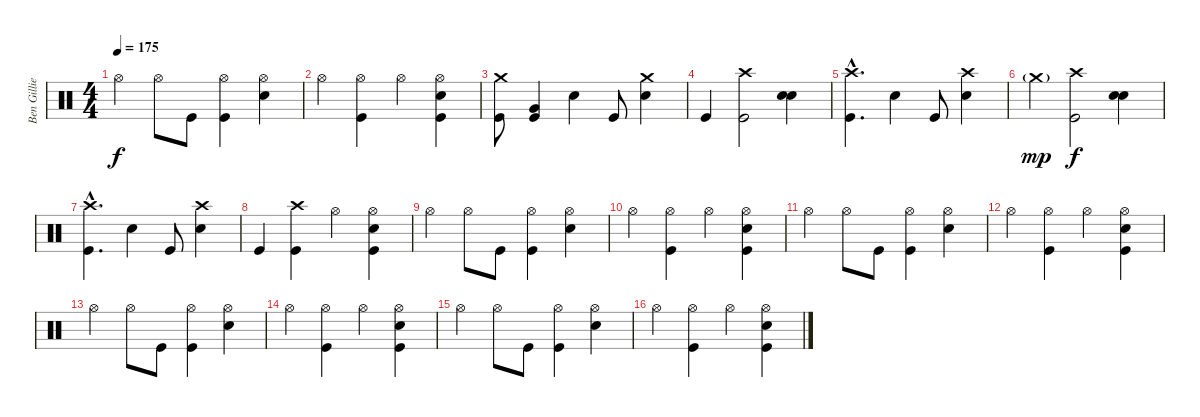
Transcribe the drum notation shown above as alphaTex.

\track ("Ben Gillies" "Ben Gillie") {instrument percussion}
\staff {score}
\articulation defaults
\ts (4 4)
\tempo 175
\clef neutral
\ks c "Hi-Hat (open)".4{dy f} "Hi-Hat (open)".8 "Kick (hit)".8
("Kick (hit)" "Hi-Hat (open)").4 ("Snare (hit) 2" "Hi-Hat (open)").4 |
"Hi-Hat (open)".4 ("Kick (hit)" "Hi-Hat (open)").4 "Hi-Hat (open)".4 ("Kick (hit)" "Snare (hit) 2" "Hi-Hat (open)").4 |
("Kick (hit)" "Crash medium (hit)").8 ("Kick (hit)" "Very Low Tom (hit)").4 "Snare (hit) 2".4 "Kick (hit)".8 ("Snare (hit) 2" "Crash medium (hit)").4 |
"Kick (hit)".4 ("Kick (hit)" "Crash high (hit)").2 ("Snare (hit) 2" "Snare (hit) 2").4{bu 60} |
("Kick (hit)"{hac} "Crash high (hit)"{hac}).4{d} "Snare (hit) 2".4 "Kick (hit)".8 ("Snare (hit) 2" "Crash high (hit)").4 |
"Crash medium (hit)"{g}.4{dy mp} ("Kick (hit)" "Crash high (hit)").2{dy f} ("Snare (hit) 2" "Snare (hit) 2").4{bu 60} |
("Kick (hit)"{hac} "Crash high (hit)"{hac}).4{d} "Snare (hit) 2".4 "Kick (hit)".8 ("Snare (hit) 2" "Crash high (hit)").4 |
"Kick (hit)".4 ("Kick (hit)" "Crash high (hit)").4 "Hi-Hat (open)".4 ("Kick (hit)" "Snare (hit) 2" "Hi-Hat (open)").4 |
"Hi-Hat (open)".4 "Hi-Hat (open)".8 "Kick (hit)".8 ("Kick (hit)" "Hi-Hat (open)").4 ("Snare (hit) 2" "Hi-Hat (open)").4 |
"Hi-Hat (open)".4 ("Kick (hit)" "Hi-Hat (open)").4 "Hi-Hat (open)".4 ("Kick (hit)" "Snare (hit) 2" "Hi-Hat (open)").4 |
"Hi-Hat (open)".4 "Hi-Hat (open)".8 "Kick (hit)".8 ("Kick (hit)" "Hi-Hat (open)").4 ("Snare (hit) 2" "Hi-Hat (open)").4 |
"Hi-Hat (open)".4 ("Kick (hit)" "Hi-Hat (open)").4 "Hi-Hat (open)".4 ("Kick (hit)" "Snare (hit) 2" "Hi-Hat (open)").4 |
"Hi-Hat (open)".4 "Hi-Hat (open)".8 "Kick (hit)".8 ("Kick (hit)" "Hi-Hat (open)").4 ("Snare (hit) 2" "Hi-Hat (open)").4 |
"Hi-Hat (open)".4 ("Kick (hit)" "Hi-Hat (open)").4 "Hi-Hat (open)".4 ("Kick (hit)" "Snare (hit) 2" "Hi-Hat (open)").4 |
"Hi-Hat (open)".4 "Hi-Hat (open)".8 "Kick (hit)".8 ("Kick (hit)" "Hi-Hat (open)").4 ("Snare (hit) 2" "Hi-Hat (open)").4 |
"Hi-Hat (open)".4 ("Kick (hit)" "Hi-Hat (open)").4 "Hi-Hat (open)".4 ("Kick (hit)" "Snare (hit) 2" "Hi-Hat (open)").4
